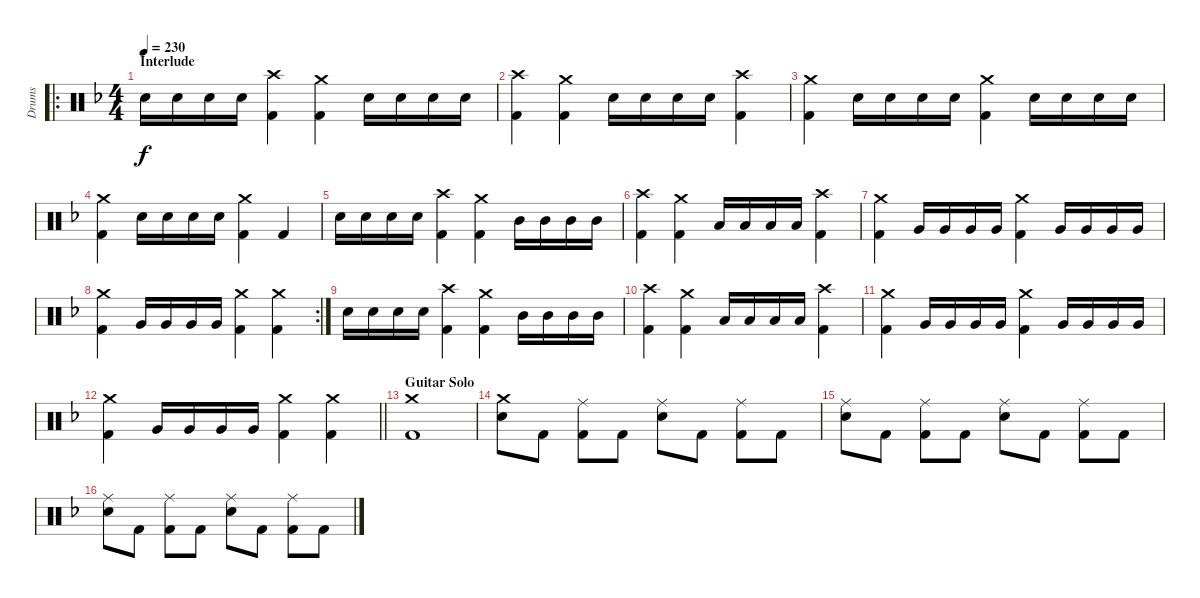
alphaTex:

\track ("Drums" "Drums") {instrument percussion}
\staff {score}
\articulation defaults
\ro
\ts (4 4)
\section ("" "Interlude")
\tempo 230
\clef neutral
\ks f "Snare (hit) 2".16{dy f} "Snare (hit) 2".16 "Snare (hit) 2".16 "Snare (hit) 2".16
("Crash high (hit)" "Kick (hit) 2").4 ("Crash medium (hit)" "Kick (hit) 2").4 "Snare (hit) 2".16 "Snare (hit) 2".16 "Snare (hit) 2".16 "Snare (hit) 2".16 |
("Crash high (hit)" "Kick (hit) 2").4 ("Crash medium (hit)" "Kick (hit) 2").4 "Snare (hit) 2".16 "Snare (hit) 2".16 "Snare (hit) 2".16 "Snare (hit) 2".16 ("Crash high (hit)" "Kick (hit) 2").4 |
("Crash medium (hit)" "Kick (hit) 2").4 "Snare (hit) 2".16 "Snare (hit) 2".16 "Snare (hit) 2".16 "Snare (hit) 2".16 ("Crash medium (hit)" "Kick (hit) 2").4 "Snare (hit) 2".16 "Snare (hit) 2".16 "Snare (hit) 2".16 "Snare (hit) 2".16 |
("Crash medium (hit)" "Kick (hit) 2").4 "Snare (hit) 2".16 "Snare (hit) 2".16 "Snare (hit) 2".16 "Snare (hit) 2".16 ("Crash medium (hit)" "Kick (hit) 2").4 "Kick (hit) 2".4 |
"Snare (hit) 2".16 "Snare (hit) 2".16 "Snare (hit) 2".16 "Snare (hit) 2".16 ("Crash high (hit)" "Kick (hit) 2").4 ("Crash medium (hit)" "Kick (hit) 2").4 "Mid Tom (hit)".16 "Mid Tom (hit)".16 "Mid Tom (hit)".16 "Mid Tom (hit)".16 |
("Crash high (hit)" "Kick (hit) 2").4 ("Crash medium (hit)" "Kick (hit) 2").4 "Low Tom (hit)".16 "Low Tom (hit)".16 "Low Tom (hit)".16 "Low Tom (hit)".16 ("Crash high (hit)" "Kick (hit) 2").4 |
("Crash medium (hit)" "Kick (hit) 2").4 "Very Low Tom (hit)".16 "Very Low Tom (hit)".16 "Very Low Tom (hit)".16 "Very Low Tom (hit)".16 ("Crash medium (hit)" "Kick (hit) 2").4 "Very Low Tom (hit)".16 "Very Low Tom (hit)".16 "Very Low Tom (hit)".16 "Very Low Tom (hit)".16 |
\rc 2
("Crash medium (hit)" "Kick (hit) 2").4 "Very Low Tom (hit)".16 "Very Low Tom (hit)".16 "Very Low Tom (hit)".16 "Very Low Tom (hit)".16 ("Crash medium (hit)" "Kick (hit) 2").4 ("Crash medium (hit)" "Kick (hit) 2").4 |
"Snare (hit) 2".16 "Snare (hit) 2".16 "Snare (hit) 2".16 "Snare (hit) 2".16 ("Crash high (hit)" "Kick (hit) 2").4 ("Crash medium (hit)" "Kick (hit) 2").4 "Mid Tom (hit)".16 "Mid Tom (hit)".16 "Mid Tom (hit)".16 "Mid Tom (hit)".16 |
("Crash high (hit)" "Kick (hit) 2").4 ("Crash medium (hit)" "Kick (hit) 2").4 "Low Tom (hit)".16 "Low Tom (hit)".16 "Low Tom (hit)".16 "Low Tom (hit)".16 ("Crash high (hit)" "Kick (hit) 2").4 |
("Crash medium (hit)" "Kick (hit) 2").4 "Very Low Tom (hit)".16 "Very Low Tom (hit)".16 "Very Low Tom (hit)".16 "Very Low Tom (hit)".16 ("Crash medium (hit)" "Kick (hit) 2").4 "Very Low Tom (hit)".16 "Very Low Tom (hit)".16 "Very Low Tom (hit)".16 "Very Low Tom (hit)".16 |
\barLineRight lightlight
("Crash medium (hit)" "Kick (hit) 2").4 "Very Low Tom (hit)".16 "Very Low Tom (hit)".16 "Very Low Tom (hit)".16 "Very Low Tom (hit)".16 ("Crash medium (hit)" "Kick (hit) 2").4 ("Crash medium (hit)" "Kick (hit) 2").4 |
\section ("" "Guitar Solo")
("Crash medium (hit)" "Kick (hit) 2").1 |
("Crash medium (hit)" "Snare (hit) 2").8 "Kick (hit) 2".8 ("Ride (middle)" "Kick (hit) 2").8 "Kick (hit) 2".8 ("Ride (middle)" "Snare (hit) 2").8 "Kick (hit) 2".8 ("Ride (middle)" "Kick (hit) 2").8 "Kick (hit) 2".8 |
("Ride (middle)" "Snare (hit) 2").8 "Kick (hit) 2".8 ("Ride (middle)" "Kick (hit) 2").8 "Kick (hit) 2".8 ("Ride (middle)" "Snare (hit) 2").8 "Kick (hit) 2".8 ("Ride (middle)" "Kick (hit) 2").8 "Kick (hit) 2".8 |
("Ride (middle)" "Snare (hit) 2").8 "Kick (hit) 2".8 ("Ride (middle)" "Kick (hit) 2").8 "Kick (hit) 2".8 ("Ride (middle)" "Snare (hit) 2").8 "Kick (hit) 2".8 ("Ride (middle)" "Kick (hit) 2").8 "Kick (hit) 2".8
